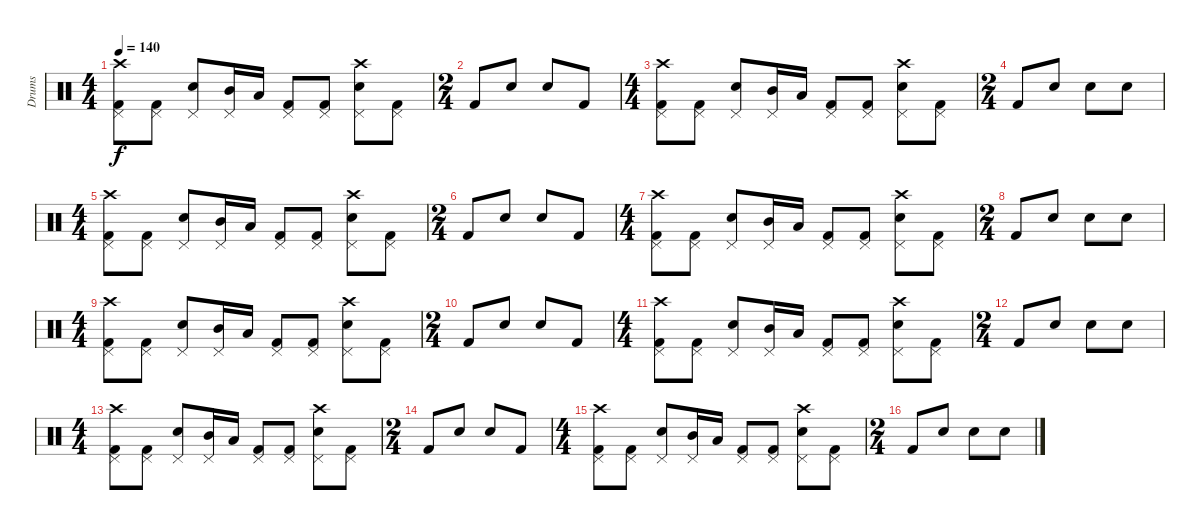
\track ("Drums" "Drums") {instrument percussion}
\staff {score}
\articulation defaults
\ts (4 4)
\tempo 140
\clef neutral
\ks c
("Crash high (hit)" "Kick (hit) 2" "Pedal Hi-Hat (hit)").8{dy f} ("Kick (hit) 2" "Pedal Hi-Hat (hit)").8 ("Electric Snare (hit)" "Pedal Hi-Hat (hit)").8 ("Mid Tom (hit)" "Pedal Hi-Hat (hit)").16 "Low Tom (hit)".16 ("Kick (hit) 2" "Pedal Hi-Hat (hit)").8 ("Kick (hit) 2" "Pedal Hi-Hat (hit)").8 ("Crash high (hit)" "Electric Snare (hit)" "Pedal Hi-Hat (hit)").8 ("Kick (hit) 2" "Pedal Hi-Hat (hit)").8 |
\ts (2 4)
"Kick (hit) 2".8 "Electric Snare (hit)".8 "Electric Snare (hit)".8 "Kick (hit) 2".8 |
\ts (4 4)
("Crash high (hit)" "Kick (hit) 2" "Pedal Hi-Hat (hit)").8 ("Kick (hit) 2" "Pedal Hi-Hat (hit)").8 ("Electric Snare (hit)" "Pedal Hi-Hat (hit)").8 ("Mid Tom (hit)" "Pedal Hi-Hat (hit)").16 "Low Tom (hit)".16 ("Kick (hit) 2" "Pedal Hi-Hat (hit)").8 ("Kick (hit) 2" "Pedal Hi-Hat (hit)").8 ("Crash high (hit)" "Electric Snare (hit)" "Pedal Hi-Hat (hit)").8 ("Kick (hit) 2" "Pedal Hi-Hat (hit)").8 |
\ts (2 4)
"Kick (hit) 2".8 "Electric Snare (hit)".8 "Electric Snare (hit)".8 "Electric Snare (hit)".8 |
\ts (4 4)
("Crash high (hit)" "Kick (hit) 2" "Pedal Hi-Hat (hit)").8 ("Kick (hit) 2" "Pedal Hi-Hat (hit)").8 ("Electric Snare (hit)" "Pedal Hi-Hat (hit)").8 ("Mid Tom (hit)" "Pedal Hi-Hat (hit)").16 "Low Tom (hit)".16 ("Kick (hit) 2" "Pedal Hi-Hat (hit)").8 ("Kick (hit) 2" "Pedal Hi-Hat (hit)").8 ("Crash high (hit)" "Electric Snare (hit)" "Pedal Hi-Hat (hit)").8 ("Kick (hit) 2" "Pedal Hi-Hat (hit)").8 |
\ts (2 4)
"Kick (hit) 2".8 "Electric Snare (hit)".8 "Electric Snare (hit)".8 "Kick (hit) 2".8 |
\ts (4 4)
("Crash high (hit)" "Kick (hit) 2" "Pedal Hi-Hat (hit)").8 ("Kick (hit) 2" "Pedal Hi-Hat (hit)").8 ("Electric Snare (hit)" "Pedal Hi-Hat (hit)").8 ("Mid Tom (hit)" "Pedal Hi-Hat (hit)").16 "Low Tom (hit)".16 ("Kick (hit) 2" "Pedal Hi-Hat (hit)").8 ("Kick (hit) 2" "Pedal Hi-Hat (hit)").8 ("Crash high (hit)" "Electric Snare (hit)" "Pedal Hi-Hat (hit)").8 ("Kick (hit) 2" "Pedal Hi-Hat (hit)").8 |
\ts (2 4)
"Kick (hit) 2".8 "Electric Snare (hit)".8 "Electric Snare (hit)".8 "Electric Snare (hit)".8 |
\ts (4 4)
("Crash high (hit)" "Kick (hit) 2" "Pedal Hi-Hat (hit)").8 ("Kick (hit) 2" "Pedal Hi-Hat (hit)").8 ("Electric Snare (hit)" "Pedal Hi-Hat (hit)").8 ("Mid Tom (hit)" "Pedal Hi-Hat (hit)").16 "Low Tom (hit)".16 ("Kick (hit) 2" "Pedal Hi-Hat (hit)").8 ("Kick (hit) 2" "Pedal Hi-Hat (hit)").8 ("Crash high (hit)" "Electric Snare (hit)" "Pedal Hi-Hat (hit)").8 ("Kick (hit) 2" "Pedal Hi-Hat (hit)").8 |
\ts (2 4)
"Kick (hit) 2".8 "Electric Snare (hit)".8 "Electric Snare (hit)".8 "Kick (hit) 2".8 |
\ts (4 4)
("Crash high (hit)" "Kick (hit) 2" "Pedal Hi-Hat (hit)").8 ("Kick (hit) 2" "Pedal Hi-Hat (hit)").8 ("Electric Snare (hit)" "Pedal Hi-Hat (hit)").8 ("Mid Tom (hit)" "Pedal Hi-Hat (hit)").16 "Low Tom (hit)".16 ("Kick (hit) 2" "Pedal Hi-Hat (hit)").8 ("Kick (hit) 2" "Pedal Hi-Hat (hit)").8 ("Crash high (hit)" "Electric Snare (hit)" "Pedal Hi-Hat (hit)").8 ("Kick (hit) 2" "Pedal Hi-Hat (hit)").8 |
\ts (2 4)
"Kick (hit) 2".8 "Electric Snare (hit)".8 "Electric Snare (hit)".8 "Electric Snare (hit)".8 |
\ts (4 4)
("Crash high (hit)" "Kick (hit) 2" "Pedal Hi-Hat (hit)").8 ("Kick (hit) 2" "Pedal Hi-Hat (hit)").8 ("Electric Snare (hit)" "Pedal Hi-Hat (hit)").8 ("Mid Tom (hit)" "Pedal Hi-Hat (hit)").16 "Low Tom (hit)".16 ("Kick (hit) 2" "Pedal Hi-Hat (hit)").8 ("Kick (hit) 2" "Pedal Hi-Hat (hit)").8 ("Crash high (hit)" "Electric Snare (hit)" "Pedal Hi-Hat (hit)").8 ("Kick (hit) 2" "Pedal Hi-Hat (hit)").8 |
\ts (2 4)
"Kick (hit) 2".8 "Electric Snare (hit)".8 "Electric Snare (hit)".8 "Kick (hit) 2".8 |
\ts (4 4)
("Crash high (hit)" "Kick (hit) 2" "Pedal Hi-Hat (hit)").8 ("Kick (hit) 2" "Pedal Hi-Hat (hit)").8 ("Electric Snare (hit)" "Pedal Hi-Hat (hit)").8 ("Mid Tom (hit)" "Pedal Hi-Hat (hit)").16 "Low Tom (hit)".16 ("Kick (hit) 2" "Pedal Hi-Hat (hit)").8 ("Kick (hit) 2" "Pedal Hi-Hat (hit)").8 ("Crash high (hit)" "Electric Snare (hit)" "Pedal Hi-Hat (hit)").8 ("Kick (hit) 2" "Pedal Hi-Hat (hit)").8 |
\ts (2 4)
"Kick (hit) 2".8 "Electric Snare (hit)".8 "Electric Snare (hit)".8 "Electric Snare (hit)".8
